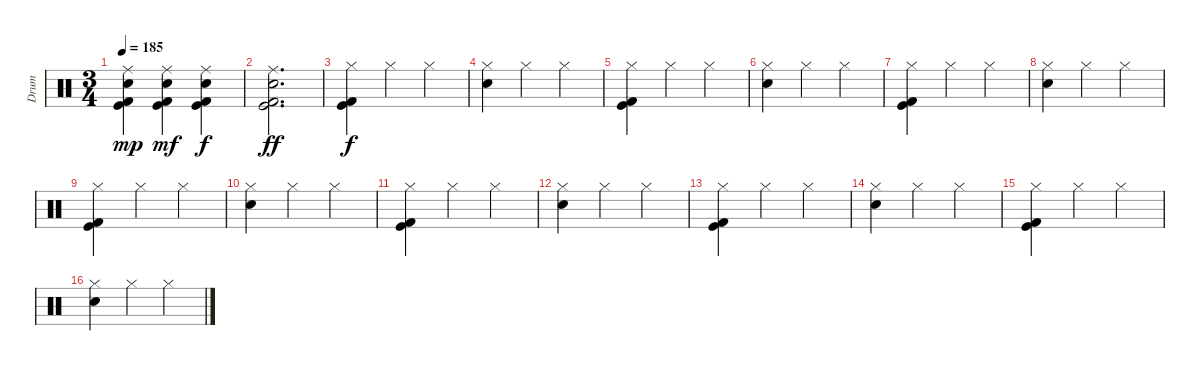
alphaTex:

\track ("Drum" "Drum") {instrument percussion}
\staff {score}
\articulation defaults
\ts (3 4)
\tempo 185
\clef neutral
\ks c
("Ride (middle)" "Electric Snare (hit)" "Kick (hit)" "Kick (hit) 2").4{dy mp} ("Ride (middle)" "Electric Snare (hit)" "Kick (hit)" "Kick (hit) 2").4{dy mf} ("Ride (middle)" "Electric Snare (hit)" "Kick (hit)" "Kick (hit) 2").4{dy f} |
("Ride (middle)" "Electric Snare (hit)" "Kick (hit)" "Kick (hit) 2").2{d dy ff} |
("Hi-Hat (closed)" "Kick (hit)" "Kick (hit) 2").4{dy f} "Hi-Hat (closed)".4 "Hi-Hat (closed)".4 |
("Hi-Hat (closed)" "Electric Snare (hit)").4 "Hi-Hat (closed)".4 "Hi-Hat (closed)".4 |
("Hi-Hat (closed)" "Kick (hit)" "Kick (hit) 2").4 "Hi-Hat (closed)".4 "Hi-Hat (closed)".4 |
("Hi-Hat (closed)" "Electric Snare (hit)").4 "Hi-Hat (closed)".4 "Hi-Hat (closed)".4 |
("Hi-Hat (closed)" "Kick (hit)" "Kick (hit) 2").4 "Hi-Hat (closed)".4 "Hi-Hat (closed)".4 |
("Hi-Hat (closed)" "Electric Snare (hit)").4 "Hi-Hat (closed)".4 "Hi-Hat (closed)".4 |
("Hi-Hat (closed)" "Kick (hit)" "Kick (hit) 2").4 "Hi-Hat (closed)".4 "Hi-Hat (closed)".4 |
("Hi-Hat (closed)" "Electric Snare (hit)").4 "Hi-Hat (closed)".4 "Hi-Hat (closed)".4 |
("Hi-Hat (closed)" "Kick (hit)" "Kick (hit) 2").4 "Hi-Hat (closed)".4 "Hi-Hat (closed)".4 |
("Hi-Hat (closed)" "Electric Snare (hit)").4 "Hi-Hat (closed)".4 "Hi-Hat (closed)".4 |
("Hi-Hat (closed)" "Kick (hit)" "Kick (hit) 2").4 "Hi-Hat (closed)".4 "Hi-Hat (closed)".4 |
("Hi-Hat (closed)" "Electric Snare (hit)").4 "Hi-Hat (closed)".4 "Hi-Hat (closed)".4 |
("Hi-Hat (closed)" "Kick (hit)" "Kick (hit) 2").4 "Hi-Hat (closed)".4 "Hi-Hat (closed)".4 |
("Hi-Hat (closed)" "Electric Snare (hit)").4 "Hi-Hat (closed)".4 "Hi-Hat (closed)".4
